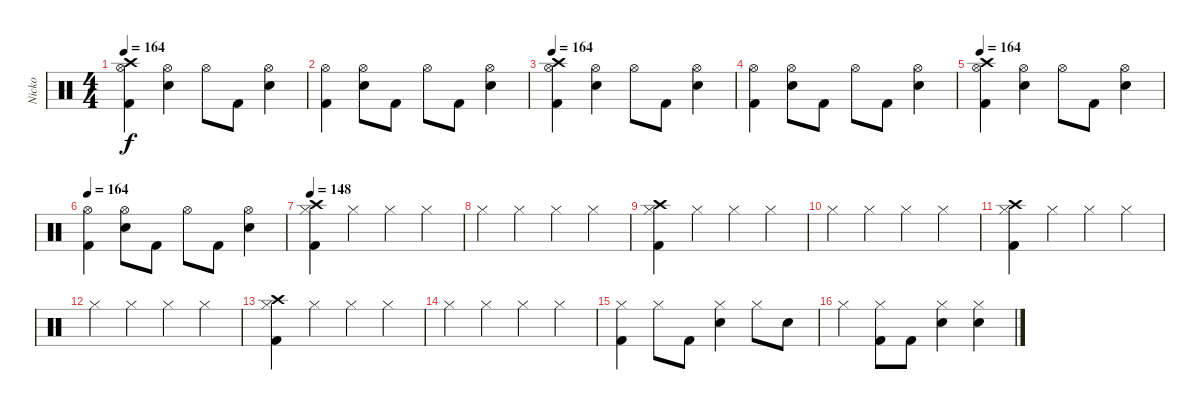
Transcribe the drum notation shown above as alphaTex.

\track ("Nicko" "Nicko") {instrument percussion}
\staff {score}
\articulation defaults
\ts (4 4)
\tempo 164
\clef neutral
\ks c
("Hi-Hat (open)" "Crash high (hit)" "Kick (hit) 2").4{dy f} ("Hi-Hat (open)" "Snare (hit) 2").4 "Hi-Hat (open)".8 "Kick (hit) 2".8 ("Hi-Hat (open)" "Snare (hit) 2").4 |
("Hi-Hat (open)" "Kick (hit) 2").4 ("Hi-Hat (open)" "Snare (hit) 2").8 "Kick (hit) 2".8 "Hi-Hat (open)".8 "Kick (hit) 2".8 ("Hi-Hat (open)" "Snare (hit) 2").4 |
\tempo 164
("Hi-Hat (open)" "Crash high (hit)" "Kick (hit) 2").4 ("Hi-Hat (open)" "Snare (hit) 2").4 "Hi-Hat (open)".8 "Kick (hit) 2".8 ("Hi-Hat (open)" "Snare (hit) 2").4 |
("Hi-Hat (open)" "Kick (hit) 2").4 ("Hi-Hat (open)" "Snare (hit) 2").8 "Kick (hit) 2".8 "Hi-Hat (open)".8 "Kick (hit) 2".8 ("Hi-Hat (open)" "Snare (hit) 2").4 |
\tempo 164
("Hi-Hat (open)" "Crash high (hit)" "Kick (hit) 2").4 ("Hi-Hat (open)" "Snare (hit) 2").4 "Hi-Hat (open)".8 "Kick (hit) 2".8 ("Hi-Hat (open)" "Snare (hit) 2").4 |
\tempo 164
("Hi-Hat (open)" "Kick (hit) 2").4 ("Hi-Hat (open)" "Snare (hit) 2").8 "Kick (hit) 2".8 "Hi-Hat (open)".8 "Kick (hit) 2".8 ("Hi-Hat (open)" "Snare (hit) 2").4 |
\tempo 148
("Hi-Hat (closed)" "Crash high (hit)" "Kick (hit) 2").4 "Hi-Hat (closed)".4 "Hi-Hat (closed)".4 "Hi-Hat (closed)".4 |
"Hi-Hat (closed)".4 "Hi-Hat (closed)".4 "Hi-Hat (closed)".4 "Hi-Hat (closed)".4 |
("Hi-Hat (closed)" "Crash high (hit)" "Kick (hit) 2").4 "Hi-Hat (closed)".4 "Hi-Hat (closed)".4 "Hi-Hat (closed)".4 |
"Hi-Hat (closed)".4 "Hi-Hat (closed)".4 "Hi-Hat (closed)".4 "Hi-Hat (closed)".4 |
("Hi-Hat (closed)" "Crash high (hit)" "Kick (hit) 2").4 "Hi-Hat (closed)".4 "Hi-Hat (closed)".4 "Hi-Hat (closed)".4 |
"Hi-Hat (closed)".4 "Hi-Hat (closed)".4 "Hi-Hat (closed)".4 "Hi-Hat (closed)".4 |
("Hi-Hat (closed)" "Crash high (hit)" "Kick (hit) 2").4 "Hi-Hat (closed)".4 "Hi-Hat (closed)".4 "Hi-Hat (closed)".4 |
"Hi-Hat (closed)".4 "Hi-Hat (closed)".4 "Hi-Hat (closed)".4 "Hi-Hat (closed)".4 |
("Hi-Hat (closed)" "Kick (hit) 2").4 "Hi-Hat (closed)".8 "Kick (hit) 2".8 ("Hi-Hat (closed)" "Snare (hit) 2").4 "Hi-Hat (closed)".8 "Snare (hit) 2".8 |
"Hi-Hat (closed)".4 ("Hi-Hat (closed)" "Kick (hit) 2").8 "Kick (hit) 2".8 ("Hi-Hat (closed)" "Snare (hit) 2").4 ("Hi-Hat (closed)" "Snare (hit) 2").4
